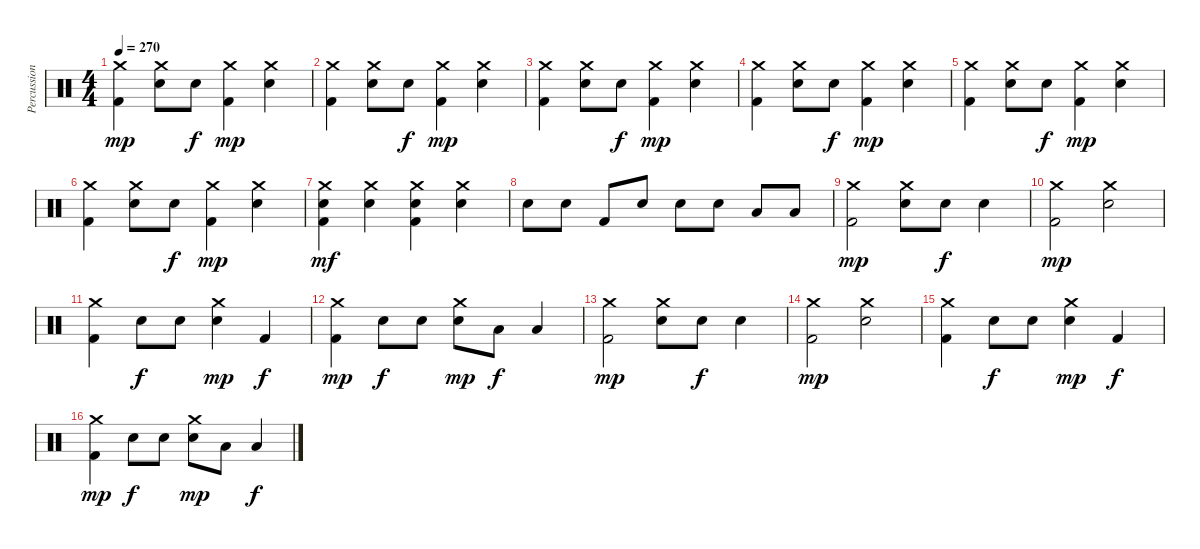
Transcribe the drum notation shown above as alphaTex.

\track ("Percussion" "Percussion") {instrument percussion}
\staff {score}
\articulation defaults
\ts (4 4)
\tempo 270
\clef neutral
\ks c
("Crash medium (hit)" "Kick (hit) 2").4{dy mp} ("Crash medium (hit)" "Electric Snare (hit)").8 "Electric Snare (hit)".8{dy f} ("Crash medium (hit)" "Kick (hit) 2").4{dy mp} ("Crash medium (hit)" "Electric Snare (hit)").4 |
("Crash medium (hit)" "Kick (hit) 2").4 ("Crash medium (hit)" "Electric Snare (hit)").8 "Electric Snare (hit)".8{dy f} ("Crash medium (hit)" "Kick (hit) 2").4{dy mp} ("Crash medium (hit)" "Electric Snare (hit)").4 |
("Crash medium (hit)" "Kick (hit) 2").4 ("Crash medium (hit)" "Electric Snare (hit)").8 "Electric Snare (hit)".8{dy f} ("Crash medium (hit)" "Kick (hit) 2").4{dy mp} ("Crash medium (hit)" "Electric Snare (hit)").4 |
("Crash medium (hit)" "Kick (hit) 2").4 ("Crash medium (hit)" "Electric Snare (hit)").8 "Electric Snare (hit)".8{dy f} ("Crash medium (hit)" "Kick (hit) 2").4{dy mp} ("Crash medium (hit)" "Electric Snare (hit)").4 |
("Crash medium (hit)" "Kick (hit) 2").4 ("Crash medium (hit)" "Electric Snare (hit)").8 "Electric Snare (hit)".8{dy f} ("Crash medium (hit)" "Kick (hit) 2").4{dy mp} ("Crash medium (hit)" "Electric Snare (hit)").4 |
("Crash medium (hit)" "Kick (hit) 2").4 ("Crash medium (hit)" "Electric Snare (hit)").8 "Electric Snare (hit)".8{dy f} ("Crash medium (hit)" "Kick (hit) 2").4{dy mp} ("Crash medium (hit)" "Electric Snare (hit)").4 |
("Crash medium (hit)" "Electric Snare (hit)" "Kick (hit) 2").4{dy mf} ("Crash medium (hit)" "Electric Snare (hit)").4 ("Crash medium (hit)" "Electric Snare (hit)" "Kick (hit) 2").4 ("Crash medium (hit)" "Electric Snare (hit)").4 |
"Electric Snare (hit)".8 "Electric Snare (hit)".8 "Kick (hit) 2".8 "Electric Snare (hit)".8 "Electric Snare (hit)".8 "Electric Snare (hit)".8 "Low Tom (hit)".8 "Low Floor Tom (hit)".8 |
("Crash medium (hit)" "Kick (hit) 2").2{dy mp} ("Crash medium (hit)" "Electric Snare (hit)").8 "Electric Snare (hit)".8{dy f} "Electric Snare (hit)".4 |
("Crash medium (hit)" "Kick (hit) 2").2{dy mp} ("Crash medium (hit)" "Electric Snare (hit)").2 |
("Crash medium (hit)" "Kick (hit) 2").4 "Electric Snare (hit)".8{dy f} "Electric Snare (hit)".8 ("Crash medium (hit)" "Electric Snare (hit)").4{dy mp} "Kick (hit) 2".4{dy f} |
("Crash medium (hit)" "Kick (hit) 2").4{dy mp} "Electric Snare (hit)".8{dy f} "Electric Snare (hit)".8 ("Crash medium (hit)" "Electric Snare (hit)").8{dy mp} "Low Floor Tom (hit)".8{dy f} "Low Floor Tom (hit)".4 |
("Crash medium (hit)" "Kick (hit) 2").2{dy mp} ("Crash medium (hit)" "Electric Snare (hit)").8 "Electric Snare (hit)".8{dy f} "Electric Snare (hit)".4 |
("Crash medium (hit)" "Kick (hit) 2").2{dy mp} ("Crash medium (hit)" "Electric Snare (hit)").2 |
("Crash medium (hit)" "Kick (hit) 2").4 "Electric Snare (hit)".8{dy f} "Electric Snare (hit)".8 ("Crash medium (hit)" "Electric Snare (hit)").4{dy mp} "Kick (hit) 2".4{dy f} |
("Crash medium (hit)" "Kick (hit) 2").4{dy mp} "Electric Snare (hit)".8{dy f} "Electric Snare (hit)".8 ("Crash medium (hit)" "Electric Snare (hit)").8{dy mp} "Low Floor Tom (hit)".8 "Low Floor Tom (hit)".4{dy f}
